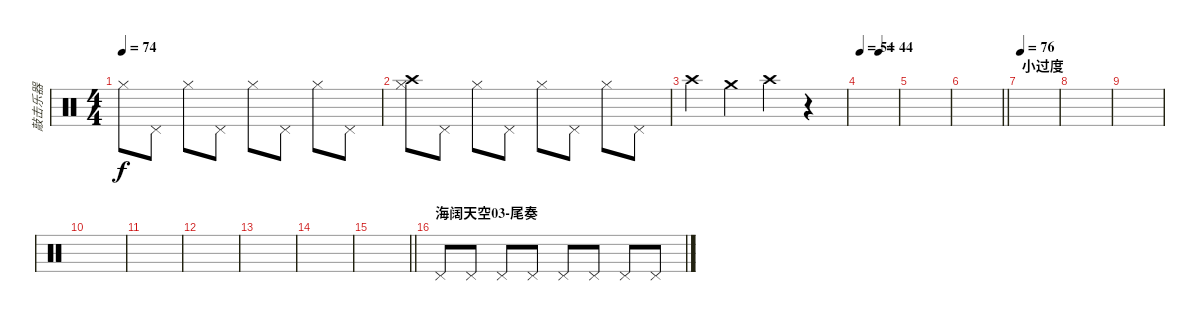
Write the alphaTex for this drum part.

\track ("敲击乐器" "敲击乐器") {instrument percussion}
\staff {score}
\articulation defaults
\ts (4 4)
\tempo 74
\clef neutral
\ks c "Hi-Hat (closed)".8{dy f} "Pedal Hi-Hat (hit)".8 "Hi-Hat (closed)".8 "Pedal Hi-Hat (hit)".8 "Hi-Hat (closed)".8 "Pedal Hi-Hat (hit)".8 "Hi-Hat (closed)".8 "Pedal Hi-Hat (hit)".8
|
("Hi-Hat (closed)" "Crash high (hit)").8 "Pedal Hi-Hat (hit)".8 "Hi-Hat (closed)".8 "Pedal Hi-Hat (hit)".8 "Hi-Hat (closed)".8 "Pedal Hi-Hat (hit)".8 "Hi-Hat (closed)".8 "Pedal Hi-Hat (hit)".8 |
"Crash high (hit)".4 "Crash medium (hit)".4 "Crash high (hit)".4 r.4 |
\tempo 54
\tempo (44 0.5)
|
|
\barLineRight lightlight
|
\section ("" "小过度")
\tempo 76
|
|
|
|
|
|
|
|
\barLineRight lightlight
|
\section ("" "海阔天空03-尾奏")
"Pedal Hi-Hat (hit)".8 "Pedal Hi-Hat (hit)".8 "Pedal Hi-Hat (hit)".8 "Pedal Hi-Hat (hit)".8 "Pedal Hi-Hat (hit)".8 "Pedal Hi-Hat (hit)".8 "Pedal Hi-Hat (hit)".8 "Pedal Hi-Hat (hit)".8
